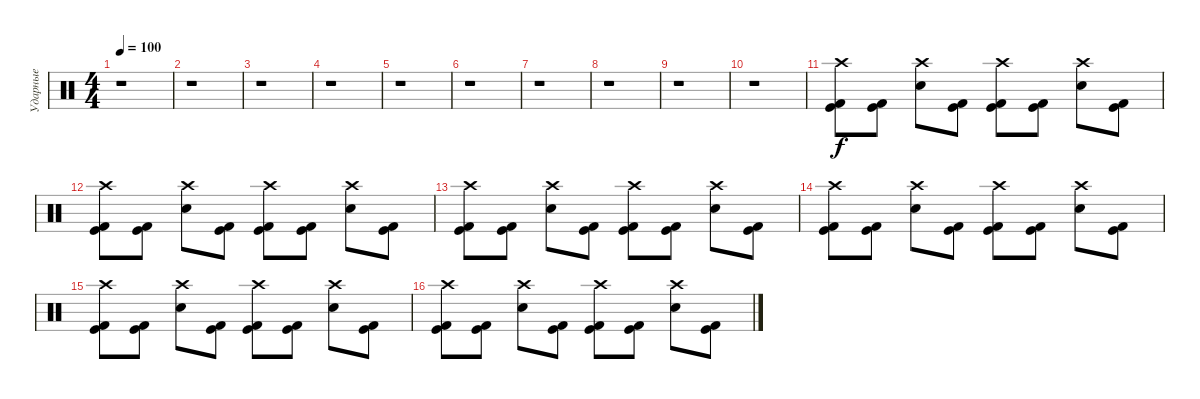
\track ("Ударные" "Ударные") {instrument percussion}
\staff {score}
\articulation defaults
\ts (4 4)
\tempo 100
\clef neutral
\ks c
r.1{dy f} |
r.1 |
r.1 |
r.1 |
r.1 |
r.1 |
r.1 |
r.1 |
r.1 |
r.1 |
("Kick (hit) 2" "Kick (hit)" "Crash high (hit)").8 ("Kick (hit) 2" "Kick (hit)").8 ("Electric Snare (hit)" "Crash high (hit)").8 ("Kick (hit) 2" "Kick (hit)").8 ("Kick (hit) 2" "Kick (hit)" "Crash high (hit)").8 ("Kick (hit) 2" "Kick (hit)").8 ("Electric Snare (hit)" "Crash high (hit)").8 ("Kick (hit) 2" "Kick (hit)").8 |
("Kick (hit) 2" "Kick (hit)" "Crash high (hit)").8 ("Kick (hit) 2" "Kick (hit)").8 ("Electric Snare (hit)" "Crash high (hit)").8 ("Kick (hit) 2" "Kick (hit)").8 ("Kick (hit) 2" "Kick (hit)" "Crash high (hit)").8 ("Kick (hit) 2" "Kick (hit)").8 ("Electric Snare (hit)" "Crash high (hit)").8 ("Kick (hit) 2" "Kick (hit)").8 |
("Kick (hit) 2" "Kick (hit)" "Crash high (hit)").8 ("Kick (hit) 2" "Kick (hit)").8 ("Electric Snare (hit)" "Crash high (hit)").8 ("Kick (hit) 2" "Kick (hit)").8 ("Kick (hit) 2" "Kick (hit)" "Crash high (hit)").8 ("Kick (hit) 2" "Kick (hit)").8 ("Electric Snare (hit)" "Crash high (hit)").8 ("Kick (hit) 2" "Kick (hit)").8 |
("Kick (hit) 2" "Kick (hit)" "Crash high (hit)").8 ("Kick (hit) 2" "Kick (hit)").8 ("Electric Snare (hit)" "Crash high (hit)").8 ("Kick (hit) 2" "Kick (hit)").8 ("Kick (hit) 2" "Kick (hit)" "Crash high (hit)").8 ("Kick (hit) 2" "Kick (hit)").8 ("Electric Snare (hit)" "Crash high (hit)").8 ("Kick (hit) 2" "Kick (hit)").8 |
("Kick (hit) 2" "Kick (hit)" "Crash high (hit)").8 ("Kick (hit) 2" "Kick (hit)").8 ("Electric Snare (hit)" "Crash high (hit)").8 ("Kick (hit) 2" "Kick (hit)").8 ("Kick (hit) 2" "Kick (hit)" "Crash high (hit)").8 ("Kick (hit) 2" "Kick (hit)").8 ("Electric Snare (hit)" "Crash high (hit)").8 ("Kick (hit) 2" "Kick (hit)").8 |
("Kick (hit) 2" "Kick (hit)" "Crash high (hit)").8 ("Kick (hit) 2" "Kick (hit)").8 ("Electric Snare (hit)" "Crash high (hit)").8 ("Kick (hit) 2" "Kick (hit)").8 ("Kick (hit) 2" "Kick (hit)" "Crash high (hit)").8 ("Kick (hit) 2" "Kick (hit)").8 ("Electric Snare (hit)" "Crash high (hit)").8 ("Kick (hit) 2" "Kick (hit)").8
